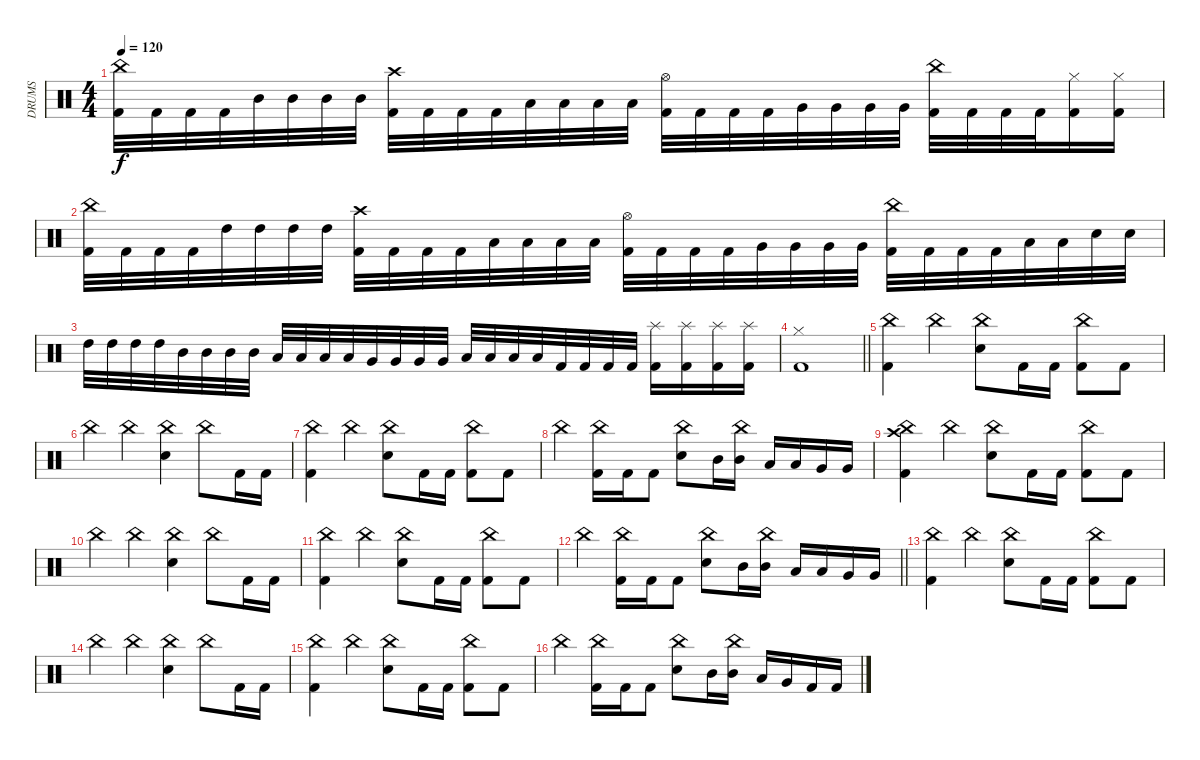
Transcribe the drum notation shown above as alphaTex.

\track ("DRUMS" "DRUMS") {instrument percussion}
\staff {score}
\articulation defaults
\ts (4 4)
\tempo 120
\clef neutral
\ks c
("China (hit)" "Kick (hit) 2").32{dy f} "Kick (hit) 2".32 "Kick (hit) 2".32 "Kick (hit) 2".32 "Mid Tom (hit)".32 "Mid Tom (hit)".32 "Mid Tom (hit)".32 "Mid Tom (hit)".32 ("Crash high (hit)" "Kick (hit) 2").32 "Kick (hit) 2".32 "Kick (hit) 2".32 "Kick (hit) 2".32 "Low Tom (hit)".32 "Low Tom (hit)".32 "Low Tom (hit)".32 "Low Tom (hit)".32 ("Hi-Hat (open)" "Kick (hit) 2").32 "Kick (hit) 2".32 "Kick (hit) 2".32 "Kick (hit) 2".32 "Very Low Tom (hit)".32 "Very Low Tom (hit)".32 "Very Low Tom (hit)".32 "Very Low Tom (hit)".32 ("China (hit)" "Kick (hit) 2").32 "Kick (hit) 2".32 "Kick (hit) 2".32 "Kick (hit) 2".32 ("Hi-Hat (closed)" "Kick (hit) 2").16 ("Hi-Hat (closed)" "Kick (hit) 2").16 |
("China (hit)" "Kick (hit) 2").32 "Kick (hit) 2".32 "Kick (hit) 2".32 "Kick (hit) 2".32 "High Tom (hit)".32 "High Tom (hit)".32 "High Tom (hit)".32 "High Tom (hit)".32 ("Crash high (hit)" "Kick (hit) 2").32 "Kick (hit) 2".32 "Kick (hit) 2".32 "Kick (hit) 2".32 "Low Tom (hit)".32 "Low Tom (hit)".32 "Low Tom (hit)".32 "Low Tom (hit)".32 ("Hi-Hat (open)" "Kick (hit) 2").32 "Kick (hit) 2".32 "Kick (hit) 2".32 "Kick (hit) 2".32 "Very Low Tom (hit)".32 "Very Low Tom (hit)".32 "Very Low Tom (hit)".32 "Very Low Tom (hit)".32 ("China (hit)" "Kick (hit) 2").32 "Kick (hit) 2".32 "Kick (hit) 2".32 "Kick (hit) 2".32 "Low Floor Tom (hit)".32 "Low Floor Tom (hit)".32 "Electric Snare (hit)".32 "Electric Snare (hit)".32 |
"High Tom (hit)".32 "High Tom (hit)".32 "High Tom (hit)".32 "High Tom (hit)".32 "Mid Tom (hit)".32 "Mid Tom (hit)".32 "Mid Tom (hit)".32 "Mid Tom (hit)".32 "Low Tom (hit)".32 "Low Tom (hit)".32 "Low Tom (hit)".32 "Low Tom (hit)".32 "Very Low Tom (hit)".32 "Very Low Tom (hit)".32 "Very Low Tom (hit)".32 "Very Low Tom (hit)".32 "Low Floor Tom (hit)".32 "Low Floor Tom (hit)".32 "Low Floor Tom (hit)".32 "Low Floor Tom (hit)".32 "Kick (hit) 2".32 "Kick (hit) 2".32 "Kick (hit) 2".32 "Kick (hit) 2".32 ("Splash (hit)" "Kick (hit) 2").16 ("Splash (hit)" "Kick (hit) 2").16 ("Splash (hit)" "Kick (hit) 2").16 ("Splash (hit)" "Kick (hit) 2").16 |
\barLineRight lightlight
("Hi-Hat (closed)" "Kick (hit) 2").1 |
("China (hit)" "Kick (hit) 2").4 "China (hit)".4 ("China (hit)" "Electric Snare (hit)").8 "Kick (hit) 2".16 "Kick (hit) 2".16 ("China (hit)" "Kick (hit) 2").8 "Kick (hit) 2".8 |
"China (hit)".4 "China (hit)".4 ("China (hit)" "Electric Snare (hit)").4 "China (hit)".8 "Kick (hit) 2".16 "Kick (hit) 2".16 |
("China (hit)" "Kick (hit) 2").4 "China (hit)".4 ("China (hit)" "Electric Snare (hit)").8 "Kick (hit) 2".16 "Kick (hit) 2".16 ("China (hit)" "Kick (hit) 2").8 "Kick (hit) 2".8 |
"China (hit)".4 ("China (hit)" "Kick (hit) 2").16 "Kick (hit) 2".16 "Kick (hit) 2".8 ("China (hit)" "Electric Snare (hit)").8 "Mid Tom (hit)".16 ("China (hit)" "Mid Tom (hit)").16 "Low Tom (hit)".16 "Low Tom (hit)".16 "Very Low Tom (hit)".16 "Very Low Tom (hit)".16 |
("China (hit)" "Crash high (hit)" "Kick (hit) 2").4 "China (hit)".4 ("China (hit)" "Electric Snare (hit)").8 "Kick (hit) 2".16 "Kick (hit) 2".16 ("China (hit)" "Kick (hit) 2").8 "Kick (hit) 2".8 |
"China (hit)".4 "China (hit)".4 ("China (hit)" "Electric Snare (hit)").4 "China (hit)".8 "Kick (hit) 2".16 "Kick (hit) 2".16 |
("China (hit)" "Kick (hit) 2").4 "China (hit)".4 ("China (hit)" "Electric Snare (hit)").8 "Kick (hit) 2".16 "Kick (hit) 2".16 ("China (hit)" "Kick (hit) 2").8 "Kick (hit) 2".8 |
\barLineRight lightlight "China (hit)".4
("China (hit)" "Kick (hit) 2").16 "Kick (hit) 2".16 "Kick (hit) 2".8 ("China (hit)" "Electric Snare (hit)").8 "Mid Tom (hit)".16 ("China (hit)" "Mid Tom (hit)").16 "Low Tom (hit)".16 "Low Tom (hit)".16 "Very Low Tom (hit)".16 "Very Low Tom (hit)".16 |
("China (hit)" "Kick (hit) 2").4 "China (hit)".4 ("China (hit)" "Electric Snare (hit)").8 "Kick (hit) 2".16 "Kick (hit) 2".16 ("China (hit)" "Kick (hit) 2").8 "Kick (hit) 2".8 |
"China (hit)".4 "China (hit)".4 ("China (hit)" "Electric Snare (hit)").4 "China (hit)".8 "Kick (hit) 2".16 "Kick (hit) 2".16 |
("China (hit)" "Kick (hit) 2").4 "China (hit)".4 ("China (hit)" "Electric Snare (hit)").8 "Kick (hit) 2".16 "Kick (hit) 2".16 ("China (hit)" "Kick (hit) 2").8 "Kick (hit) 2".8 |
"China (hit)".4 ("China (hit)" "Kick (hit) 2").16 "Kick (hit) 2".16 "Kick (hit) 2".8 ("China (hit)" "Electric Snare (hit)").8 "Mid Tom (hit)".16 ("China (hit)" "Mid Tom (hit)").16 "Low Tom (hit)".16 "Very Low Tom (hit)".16 "Kick (hit) 2".16 "Kick (hit) 2".16
